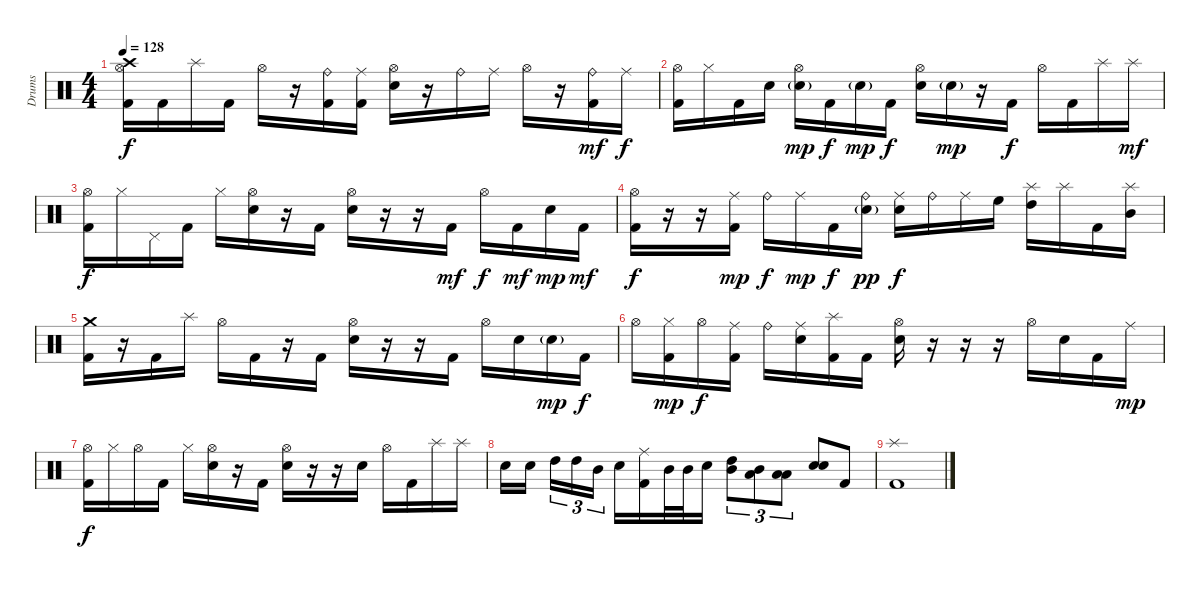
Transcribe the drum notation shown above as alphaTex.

\track ("Drums" "Drums") {instrument percussion}
\staff {score}
\articulation defaults
\ts (4 4)
\tempo 128
\clef neutral
\ks c
("Crash high (hit)" "Hi-Hat (open)" "Kick (hit) 2").16{dy f} "Kick (hit) 2".16 "Splash (hit)".16 "Kick (hit) 2".16 "Hi-Hat (open)".16 r.16 ("Ride (bell)" "Kick (hit) 2").16 ("Ride (middle)" "Kick (hit) 2").16 ("Hi-Hat (open)" "Electric Snare (hit)").16 r.16 "Ride (bell)".16 "Ride (middle)".16 "Hi-Hat (open)".16 r.16 ("Ride (bell)" "Kick (hit) 2").16{dy mf} "Ride (middle)".16{dy f} |
("Hi-Hat (open)" "Kick (hit) 2").16 "Hi-Hat (closed)".16 "Kick (hit) 2".16 "Electric Snare (hit)".16 ("Hi-Hat (open)" "Electric Snare (hit)"{g}).16{dy mp} "Kick (hit) 2".16{dy f} "Electric Snare (hit)"{g}.16{dy mp} "Kick (hit) 2".16{dy f} ("Hi-Hat (open)" "Electric Snare (hit)").16 "Electric Snare (hit)"{g}.16{dy mp} r.16 "Kick (hit) 2".16{dy f} "Hi-Hat (open)".16 "Kick (hit) 2".16 "Splash (hit)".16 "Splash (hit)".16{dy mf} |
("Hi-Hat (open)" "Kick (hit) 2").16{dy f} "Hi-Hat (closed)".16 "Pedal Hi-Hat (hit)".16 "Kick (hit) 2".16 "Hi-Hat (closed)".16 ("Hi-Hat (open)" "Electric Snare (hit)").16 r.16 "Kick (hit) 2".16 ("Hi-Hat (open)" "Electric Snare (hit)").16 r.16 r.16 "Kick (hit) 2".16{dy mf} "Hi-Hat (open)".16{dy f} "Kick (hit) 2".16{dy mf} "Electric Snare (hit)".16{dy mp} "Kick (hit) 2".16{dy mf} |
("Hi-Hat (open)" "Kick (hit) 2").16{dy f} r.16 r.16 ("Ride (middle)" "Kick (hit) 2").16{dy mp} "Ride (bell)".16{dy f} "Ride (middle)".16{dy mp} "Kick (hit) 2".16{dy f} ("Ride (bell)" "Electric Snare (hit)"{g}).16{dy pp} ("Ride (middle)" "Electric Snare (hit)").16{dy f} "Ride (bell)".16 "Ride (middle)".16 "High Floor Tom (hit)".16 ("Splash (hit)" "High Tom (hit)").16 "Splash (hit)".16 "Kick (hit) 2".16 ("Splash (hit)" "Mid Tom (hit)").16 |
("Crash medium (hit)" "Kick (hit) 2").16 r.16 "Kick (hit) 2".16 "Splash (hit)".16 "Hi-Hat (open)".16 "Kick (hit) 2".16 r.16 "Kick (hit) 2".16 ("Hi-Hat (open)" "Electric Snare (hit)").16 r.16 r.16 "Kick (hit) 2".16 "Hi-Hat (open)".16 "Electric Snare (hit)".16 "Electric Snare (hit)"{g}.16{dy mp} "Kick (hit) 2".16{dy f} |
"Hi-Hat (open)".16 ("Hi-Hat (closed)" "Kick (hit) 2").16{dy mp} "Hi-Hat (open)".16{dy f} ("Ride (middle)" "Kick (hit) 2").16 "Ride (bell)".16 ("Ride (middle)" "Electric Snare (hit)").16 ("Splash (hit)" "Kick (hit) 2").16 "Kick (hit) 2".16 ("Hi-Hat (open)" "Electric Snare (hit)").16 r.16 r.16 r.16 "Hi-Hat (open)".16 "Electric Snare (hit)".16 "Kick (hit) 2".16 "Ride (middle)".16{dy mp} |
("Hi-Hat (open)" "Kick (hit) 2").16{dy f} "Hi-Hat (closed)".16 "Hi-Hat (open)".16 "Kick (hit) 2".16 "Hi-Hat (closed)".16 ("Hi-Hat (open)" "Electric Snare (hit)").16 r.16 "Kick (hit) 2".16 ("Hi-Hat (open)" "Electric Snare (hit)").16 r.16 r.16 "Electric Snare (hit)".16 "Hi-Hat (open)".16 "Kick (hit) 2".16 "Splash (hit)".16 "Splash (hit)".16 |
"Electric Snare (hit)".16 "Electric Snare (hit)".16 "High Tom (hit)".16{tu (3 2)} "High Tom (hit)".16{tu (3 2)} "Mid Tom (hit)".16{tu (3 2)} "Electric Snare (hit)".16 ("Ride (middle)" "Kick (hit) 2").16 "Mid Tom (hit)".32 "Mid Tom (hit)".32 "Electric Snare (hit)".16 ("Mid Tom (hit)" "High Tom (hit)").8{tu (3 2)} ("Low Tom (hit)" "Mid Tom (hit)").8{tu (3 2)} ("Low Tom (hit)" "Low Floor Tom (hit)").8{tu (3 2)} ("Electric Snare (hit)" "Electric Snare (hit)").8 "Kick (hit) 2".8 |
("Splash (hit)" "Kick (hit) 2").1
